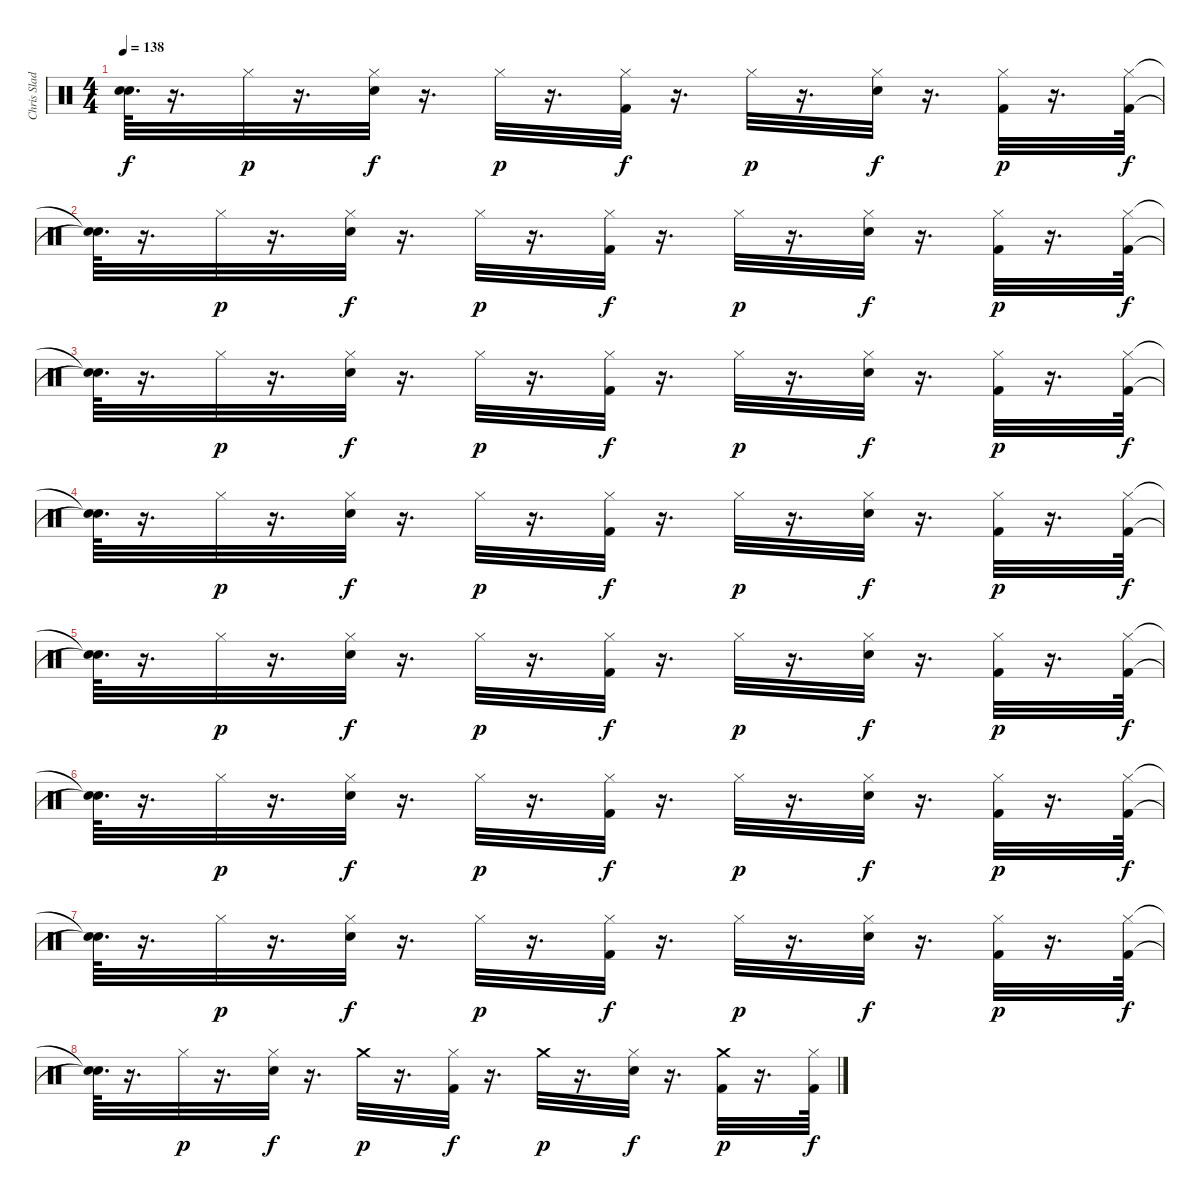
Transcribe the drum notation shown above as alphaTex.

\track ("Chris Slade" "Chris Slad") {instrument percussion}
\staff {score}
\articulation defaults
\ts (4 4)
\tempo 138
\clef neutral
\ks c
("Snare (hit)"{t} "Snare (hit)"{t}).64{d dy f} r.16{d} "Hi-Hat (closed)".32{dy p} r.16{d} ("Hi-Hat (closed)" "Electric Snare (hit)").32{dy f} r.16{d} "Hi-Hat (closed)".32{dy p} r.16{d} ("Hi-Hat (closed)" "Kick (hit) 2").32{dy f} r.16{d} "Hi-Hat (closed)".32{dy p} r.16{d} ("Hi-Hat (closed)" "Electric Snare (hit)").32{dy f} r.16{d} ("Hi-Hat (closed)" "Kick (hit) 2").32{dy p} r.16{d} ("Hi-Hat (closed)" "Kick (hit) 2").64{dy f} |
("Snare (hit)"{t} "Snare (hit)"{t}).64{d} r.16{d} "Hi-Hat (closed)".32{dy p} r.16{d} ("Hi-Hat (closed)" "Electric Snare (hit)").32{dy f} r.16{d} "Hi-Hat (closed)".32{dy p} r.16{d} ("Hi-Hat (closed)" "Kick (hit) 2").32{dy f} r.16{d} "Hi-Hat (closed)".32{dy p} r.16{d} ("Hi-Hat (closed)" "Electric Snare (hit)").32{dy f} r.16{d} ("Hi-Hat (closed)" "Kick (hit) 2").32{dy p} r.16{d} ("Hi-Hat (closed)" "Kick (hit) 2").64{dy f} |
("Snare (hit)"{t} "Snare (hit)"{t}).64{d} r.16{d} "Hi-Hat (closed)".32{dy p} r.16{d} ("Hi-Hat (closed)" "Electric Snare (hit)").32{dy f} r.16{d} "Hi-Hat (closed)".32{dy p} r.16{d} ("Hi-Hat (closed)" "Kick (hit) 2").32{dy f} r.16{d} "Hi-Hat (closed)".32{dy p} r.16{d} ("Hi-Hat (closed)" "Electric Snare (hit)").32{dy f} r.16{d} ("Hi-Hat (closed)" "Kick (hit) 2").32{dy p} r.16{d} ("Hi-Hat (closed)" "Kick (hit) 2").64{dy f} |
("Snare (hit)"{t} "Snare (hit)"{t}).64{d} r.16{d} "Hi-Hat (closed)".32{dy p} r.16{d} ("Hi-Hat (closed)" "Electric Snare (hit)").32{dy f} r.16{d} "Hi-Hat (closed)".32{dy p} r.16{d} ("Hi-Hat (closed)" "Kick (hit) 2").32{dy f} r.16{d} "Hi-Hat (closed)".32{dy p} r.16{d} ("Hi-Hat (closed)" "Electric Snare (hit)").32{dy f} r.16{d} ("Hi-Hat (closed)" "Kick (hit) 2").32{dy p} r.16{d} ("Hi-Hat (closed)" "Kick (hit) 2").64{dy f} |
("Snare (hit)"{t} "Snare (hit)"{t}).64{d} r.16{d} "Hi-Hat (closed)".32{dy p} r.16{d} ("Hi-Hat (closed)" "Electric Snare (hit)").32{dy f} r.16{d} "Hi-Hat (closed)".32{dy p} r.16{d} ("Hi-Hat (closed)" "Kick (hit) 2").32{dy f} r.16{d} "Hi-Hat (closed)".32{dy p} r.16{d} ("Hi-Hat (closed)" "Electric Snare (hit)").32{dy f} r.16{d} ("Hi-Hat (closed)" "Kick (hit) 2").32{dy p} r.16{d} ("Hi-Hat (closed)" "Kick (hit) 2").64{dy f} |
("Snare (hit)"{t} "Snare (hit)"{t}).64{d} r.16{d} "Hi-Hat (closed)".32{dy p} r.16{d} ("Hi-Hat (closed)" "Electric Snare (hit)").32{dy f} r.16{d} "Hi-Hat (closed)".32{dy p} r.16{d} ("Hi-Hat (closed)" "Kick (hit) 2").32{dy f} r.16{d} "Hi-Hat (closed)".32{dy p} r.16{d} ("Hi-Hat (closed)" "Electric Snare (hit)").32{dy f} r.16{d} ("Hi-Hat (closed)" "Kick (hit) 2").32{dy p} r.16{d} ("Hi-Hat (closed)" "Kick (hit) 2").64{dy f} |
("Snare (hit)"{t} "Snare (hit)"{t}).64{d} r.16{d} "Hi-Hat (closed)".32{dy p} r.16{d} ("Hi-Hat (closed)" "Electric Snare (hit)").32{dy f} r.16{d} "Hi-Hat (closed)".32{dy p} r.16{d} ("Hi-Hat (closed)" "Kick (hit) 2").32{dy f} r.16{d} "Hi-Hat (closed)".32{dy p} r.16{d} ("Hi-Hat (closed)" "Electric Snare (hit)").32{dy f} r.16{d} ("Hi-Hat (closed)" "Kick (hit) 2").32{dy p} r.16{d} ("Hi-Hat (closed)" "Kick (hit) 2").64{dy f} |
("Snare (hit)"{t} "Snare (hit)"{t}).64{d} r.16{d} "Hi-Hat (closed)".32{dy p} r.16{d} ("Hi-Hat (closed)" "Electric Snare (hit)").32{dy f} r.16{d} "Crash medium (hit)".32{dy p} r.16{d} ("Hi-Hat (closed)" "Kick (hit) 2").32{dy f} r.16{d} "Crash medium (hit)".32{dy p} r.16{d} ("Hi-Hat (closed)" "Electric Snare (hit)").32{dy f} r.16{d} ("Crash medium (hit)" "Kick (hit) 2").32{dy p} r.16{d} ("Hi-Hat (closed)" "Kick (hit) 2").64{dy f}
